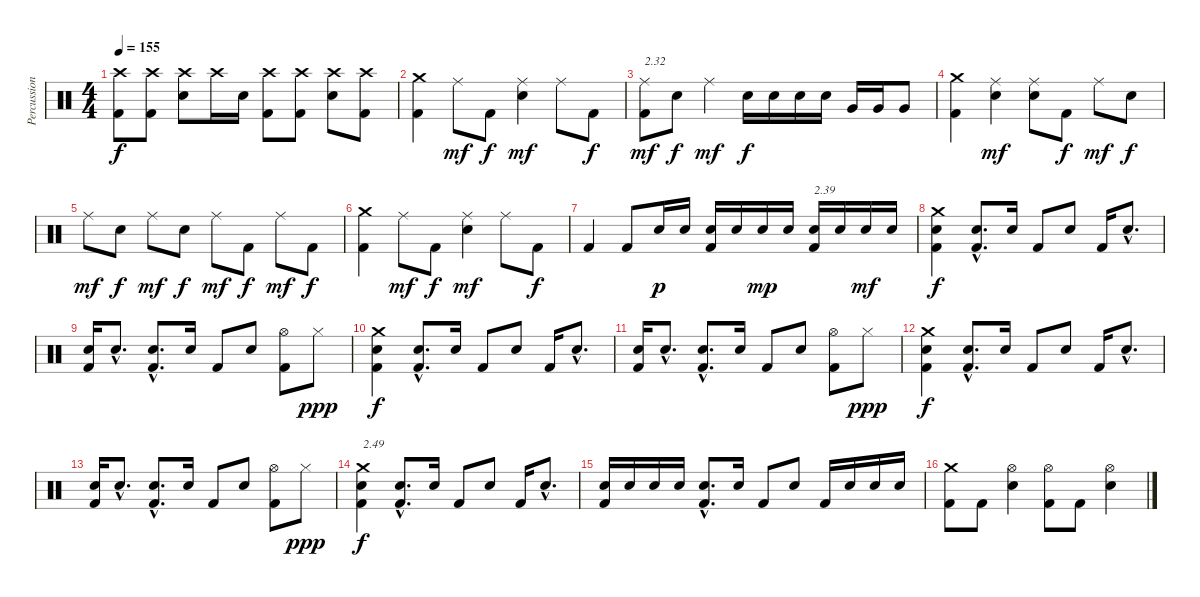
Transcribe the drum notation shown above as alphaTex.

\track ("Percussions" "Percussion") {instrument percussion}
\staff {score}
\articulation defaults
\ts (4 4)
\tempo 155
\clef neutral
\ks c
("Kick (hit) 2" "Crash high (hit)").8{dy f} ("Kick (hit) 2" "Crash high (hit)").8 ("Electric Snare (hit)" "Crash high (hit)").8 "Crash high (hit)".16 "Electric Snare (hit)".16 ("Kick (hit) 2" "Crash high (hit)").8 ("Kick (hit) 2" "Crash high (hit)").8 ("Electric Snare (hit)" "Crash high (hit)").8 ("Kick (hit) 2" "Crash high (hit)").8 |
("Kick (hit) 2" "Crash medium (hit)").4 "Ride (middle)".8{dy mf} "Kick (hit) 2".8{dy f} ("Electric Snare (hit)" "Ride (middle)").4{dy mf} "Ride (middle)".8 "Kick (hit) 2".8{dy f} |
("Kick (hit) 2" "Ride (middle)").8{txt "2.32" dy mf} "Electric Snare (hit)".8{dy f} "Ride (middle)".4{dy mf} "Electric Snare (hit)".16{dy f} "Electric Snare (hit)".16 "Electric Snare (hit)".16 "Electric Snare (hit)".16 "Very Low Tom (hit)".16 "Very Low Tom (hit)".16 "Very Low Tom (hit)".8 |
("Kick (hit) 2" "Crash medium (hit)").4 ("Electric Snare (hit)" "Ride (middle)").4{dy mf} ("Electric Snare (hit)" "Ride (middle)").8 "Kick (hit) 2".8{dy f} "Ride (middle)".8{dy mf} "Electric Snare (hit)".8{dy f} |
"Ride (middle)".8{dy mf} "Electric Snare (hit)".8{dy f} "Ride (middle)".8{dy mf} "Electric Snare (hit)".8{dy f} "Ride (middle)".8{dy mf} "Kick (hit) 2".8{dy f} "Ride (middle)".8{dy mf} "Kick (hit) 2".8{dy f} |
("Kick (hit) 2" "Crash medium (hit)").4 "Ride (middle)".8{dy mf} "Kick (hit) 2".8{dy f} ("Electric Snare (hit)" "Ride (middle)").4{dy mf} "Ride (middle)".8 "Kick (hit) 2".8{dy f} |
"Kick (hit) 2".4 "Kick (hit) 2".8 "Electric Snare (hit)".16{dy p} "Electric Snare (hit)".16 ("Kick (hit) 2" "Electric Snare (hit)").16 "Electric Snare (hit)".16 "Electric Snare (hit)".16{dy mp} "Electric Snare (hit)".16 ("Kick (hit) 2" "Electric Snare (hit)").16{txt "2.39"} "Electric Snare (hit)".16 "Electric Snare (hit)".16{dy mf} "Electric Snare (hit)".16 |
("Kick (hit) 2" "Electric Snare (hit)" "Crash medium (hit)").4{dy f} ("Kick (hit) 2"{hac} "Snare (hit) 2"{hac}).8{d} "Snare (hit) 2".16 "Kick (hit) 2".8 "Snare (hit) 2".8 "Kick (hit) 2".16 "Snare (hit) 2"{hac}.8{d} |
("Kick (hit) 2" "Snare (hit) 2").16 "Snare (hit) 2"{hac}.8{d} ("Kick (hit) 2"{hac} "Snare (hit) 2"{hac}).8{d} "Snare (hit) 2".16 "Kick (hit) 2".8 "Snare (hit) 2".8 ("Kick (hit) 2" "Hi-Hat (open)").8 "Hi-Hat (closed)".8{dy ppp} |
("Kick (hit) 2" "Electric Snare (hit)" "Crash medium (hit)").4{dy f} ("Kick (hit) 2"{hac} "Snare (hit) 2"{hac}).8{d} "Snare (hit) 2".16 "Kick (hit) 2".8 "Snare (hit) 2".8 "Kick (hit) 2".16 "Snare (hit) 2"{hac}.8{d} |
("Kick (hit) 2" "Snare (hit) 2").16 "Snare (hit) 2"{hac}.8{d} ("Kick (hit) 2"{hac} "Snare (hit) 2"{hac}).8{d} "Snare (hit) 2".16 "Kick (hit) 2".8 "Snare (hit) 2".8 ("Kick (hit) 2" "Hi-Hat (open)").8 "Hi-Hat (closed)".8{dy ppp} |
("Kick (hit) 2" "Electric Snare (hit)" "Crash medium (hit)").4{dy f} ("Kick (hit) 2"{hac} "Snare (hit) 2"{hac}).8{d} "Snare (hit) 2".16 "Kick (hit) 2".8 "Snare (hit) 2".8 "Kick (hit) 2".16 "Snare (hit) 2"{hac}.8{d} |
("Kick (hit) 2" "Snare (hit) 2").16 "Snare (hit) 2"{hac}.8{d} ("Kick (hit) 2"{hac} "Snare (hit) 2"{hac}).8{d} "Snare (hit) 2".16 "Kick (hit) 2".8 "Snare (hit) 2".8 ("Kick (hit) 2" "Hi-Hat (open)").8 "Hi-Hat (closed)".8{dy ppp} |
("Kick (hit) 2" "Electric Snare (hit)" "Crash medium (hit)").4{txt "2.49" dy f} ("Kick (hit) 2"{hac} "Snare (hit) 2"{hac}).8{d} "Snare (hit) 2".16 "Kick (hit) 2".8 "Snare (hit) 2".8 "Kick (hit) 2".16 "Snare (hit) 2"{hac}.8{d} |
("Kick (hit) 2" "Snare (hit) 2").16 "Snare (hit) 2".16 "Snare (hit) 2".16 "Snare (hit) 2".16 ("Kick (hit) 2"{hac} "Snare (hit) 2"{hac}).8{d} "Snare (hit) 2".16 "Kick (hit) 2".8 "Snare (hit) 2".8 "Kick (hit) 2".16 "Snare (hit) 2".16 "Snare (hit) 2".16 "Snare (hit) 2".16 |
("Kick (hit) 2" "Crash medium (hit)").8 "Kick (hit) 2".8 ("Electric Snare (hit)" "Hi-Hat (open)").4 ("Kick (hit) 2" "Hi-Hat (open)").8 "Kick (hit) 2".8 ("Electric Snare (hit)" "Hi-Hat (open)").4
